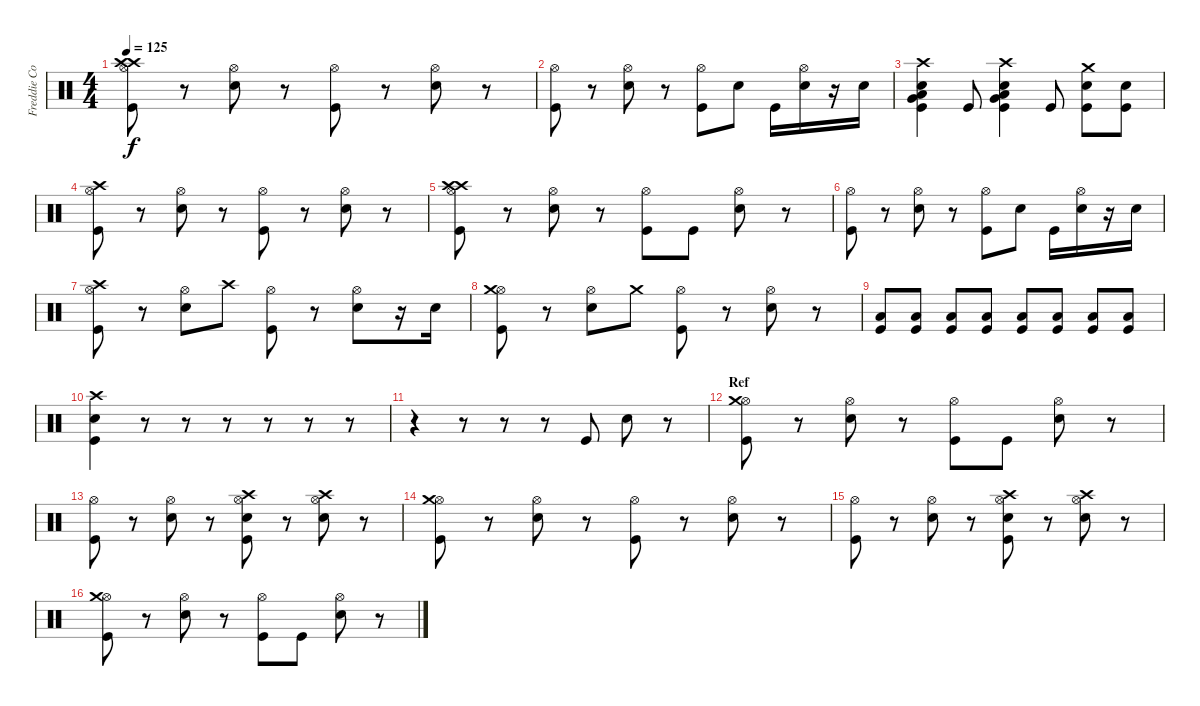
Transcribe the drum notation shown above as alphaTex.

\track ("Freddie Coury - Drums" "Freddie Co") {instrument percussion}
\staff {score}
\articulation defaults
\ts (4 4)
\tempo 125
\clef neutral
\ks c
("Hi-Hat (open)" "Crash high (hit)" "Crash high (hit)" "Kick (hit)").8{dy f} r.8 ("Hi-Hat (open)" "Snare (hit) 2").8 r.8 ("Hi-Hat (open)" "Kick (hit)").8 r.8 ("Hi-Hat (open)" "Snare (hit) 2").8 r.8 |
("Hi-Hat (open)" "Kick (hit)").8 r.8 ("Hi-Hat (open)" "Snare (hit) 2").8 r.8 ("Hi-Hat (open)" "Kick (hit)").8 "Snare (hit) 2".8 "Kick (hit)".16 ("Hi-Hat (open)" "Snare (hit) 2").16 r.16 "Snare (hit) 2".16 |
("Crash high (hit)" "Snare (hit) 2" "Kick (hit)" "Low Floor Tom (hit)" "Very Low Tom (hit)").4 "Kick (hit)".8 ("Crash high (hit)" "Snare (hit) 2" "Kick (hit)" "Low Floor Tom (hit)" "Very Low Tom (hit)").4 "Kick (hit)".8 ("Snare (hit) 2" "Crash medium (hit)" "Kick (hit)").8 ("Snare (hit) 2" "Kick (hit)").8 |
("Hi-Hat (open)" "Crash high (hit)" "Kick (hit)").8 r.8 ("Hi-Hat (open)" "Snare (hit) 2").8 r.8 ("Hi-Hat (open)" "Kick (hit)").8 r.8 ("Hi-Hat (open)" "Snare (hit) 2").8 r.8 |
("Hi-Hat (open)" "Crash high (hit)" "Crash high (hit)" "Kick (hit)").8 r.8 ("Hi-Hat (open)" "Snare (hit) 2").8 r.8 ("Hi-Hat (open)" "Kick (hit)").8 "Kick (hit)".8 ("Hi-Hat (open)" "Snare (hit) 2").8 r.8 |
("Hi-Hat (open)" "Kick (hit)").8 r.8 ("Hi-Hat (open)" "Snare (hit) 2").8 r.8 ("Hi-Hat (open)" "Kick (hit)").8 "Snare (hit) 2".8 "Kick (hit)".16 ("Hi-Hat (open)" "Snare (hit) 2").16 r.16 "Snare (hit) 2".16 |
("Hi-Hat (open)" "Crash high (hit)" "Kick (hit)").8 r.8 ("Hi-Hat (open)" "Snare (hit) 2").8 "Crash high (hit)".8 ("Hi-Hat (open)" "Kick (hit)").8 r.8 ("Hi-Hat (open)" "Snare (hit) 2").8 r.16 "Snare (hit) 2".16 |
("Hi-Hat (open)" "Crash medium (hit)" "Kick (hit)").8 r.8 ("Hi-Hat (open)" "Snare (hit) 2").8 "Crash medium (hit)".8 ("Hi-Hat (open)" "Kick (hit)").8 r.8 ("Hi-Hat (open)" "Snare (hit) 2").8 r.8 |
("Kick (hit)" "Low Floor Tom (hit)").8 ("Kick (hit)" "Low Floor Tom (hit)").8 ("Kick (hit)" "Low Floor Tom (hit)").8 ("Kick (hit)" "Low Floor Tom (hit)").8 ("Kick (hit)" "Low Floor Tom (hit)").8 ("Kick (hit)" "Low Floor Tom (hit)").8 ("Kick (hit)" "Low Floor Tom (hit)").8 ("Kick (hit)" "Low Floor Tom (hit)").8 |
("Crash high (hit)" "Snare (hit) 2" "Kick (hit)").4 r.8 r.8 r.8 r.8 r.8 r.8 |
r.4 r.8 r.8 r.8 "Kick (hit)".8 "Snare (hit) 2".8 r.8 |
\section ("" "Ref")
("Hi-Hat (open)" "Crash medium (hit)" "Kick (hit)").8 r.8 ("Hi-Hat (open)" "Snare (hit) 2").8 r.8 ("Hi-Hat (open)" "Kick (hit)").8 "Kick (hit)".8 ("Hi-Hat (open)" "Snare (hit) 2").8 r.8 |
("Hi-Hat (open)" "Kick (hit)").8 r.8 ("Hi-Hat (open)" "Snare (hit) 2").8 r.8 ("Hi-Hat (open)" "Crash high (hit)" "Snare (hit) 2" "Kick (hit)").8 r.8 ("Hi-Hat (open)" "Crash high (hit)" "Snare (hit) 2").8 r.8 |
("Hi-Hat (open)" "Crash medium (hit)" "Kick (hit)").8 r.8 ("Hi-Hat (open)" "Snare (hit) 2").8 r.8 ("Hi-Hat (open)" "Kick (hit)").8 r.8 ("Hi-Hat (open)" "Snare (hit) 2").8 r.8 |
("Hi-Hat (open)" "Kick (hit)").8 r.8 ("Hi-Hat (open)" "Snare (hit) 2").8 r.8 ("Hi-Hat (open)" "Crash high (hit)" "Snare (hit) 2" "Kick (hit)").8 r.8 ("Hi-Hat (open)" "Crash high (hit)" "Snare (hit) 2").8 r.8 |
("Hi-Hat (open)" "Crash medium (hit)" "Kick (hit)").8 r.8 ("Hi-Hat (open)" "Snare (hit) 2").8 r.8 ("Hi-Hat (open)" "Kick (hit)").8 "Kick (hit)".8 ("Hi-Hat (open)" "Snare (hit) 2").8 r.8
